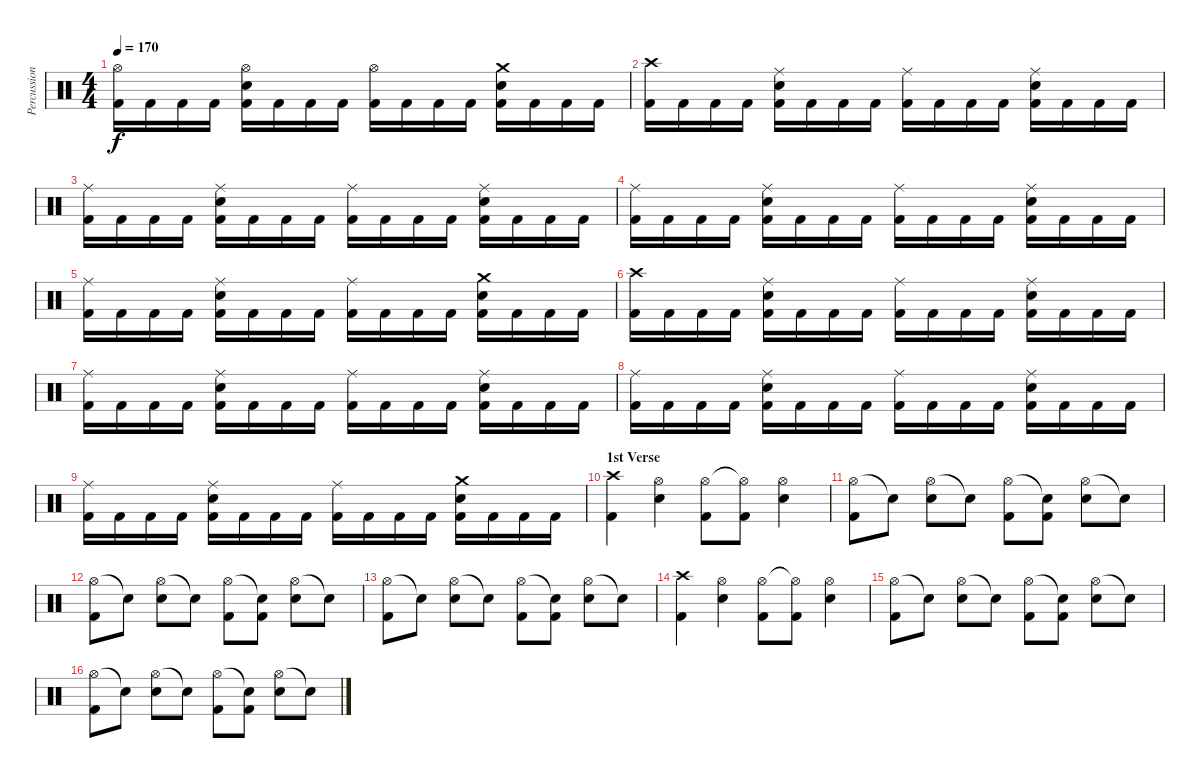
\track ("Percussion" "Percussion") {instrument percussion}
\staff {score}
\articulation defaults
\ts (4 4)
\tempo 170
\clef neutral
\ks c
("Hi-Hat (open)" "Kick (hit) 2").16{dy f} "Kick (hit) 2".16 "Kick (hit) 2".16 "Kick (hit) 2".16 ("Hi-Hat (open)" "Electric Snare (hit)" "Kick (hit) 2").16 "Kick (hit) 2".16 "Kick (hit) 2".16 "Kick (hit) 2".16 ("Hi-Hat (open)" "Kick (hit) 2").16 "Kick (hit) 2".16 "Kick (hit) 2".16 "Kick (hit) 2".16 ("Crash medium (hit)" "Electric Snare (hit)" "Kick (hit) 2").16 "Kick (hit) 2".16 "Kick (hit) 2".16 "Kick (hit) 2".16 |
("Crash high (hit)" "Kick (hit) 2").16 "Kick (hit) 2".16 "Kick (hit) 2".16 "Kick (hit) 2".16 ("Ride (middle)" "Electric Snare (hit)" "Kick (hit) 2").16 "Kick (hit) 2".16 "Kick (hit) 2".16 "Kick (hit) 2".16 ("Ride (middle)" "Kick (hit) 2").16 "Kick (hit) 2".16 "Kick (hit) 2".16 "Kick (hit) 2".16 ("Ride (middle)" "Electric Snare (hit)" "Kick (hit) 2").16 "Kick (hit) 2".16 "Kick (hit) 2".16 "Kick (hit) 2".16 |
("Ride (middle)" "Kick (hit) 2").16 "Kick (hit) 2".16 "Kick (hit) 2".16 "Kick (hit) 2".16 ("Ride (middle)" "Electric Snare (hit)" "Kick (hit) 2").16 "Kick (hit) 2".16 "Kick (hit) 2".16 "Kick (hit) 2".16 ("Ride (middle)" "Kick (hit) 2").16 "Kick (hit) 2".16 "Kick (hit) 2".16 "Kick (hit) 2".16 ("Ride (middle)" "Electric Snare (hit)" "Kick (hit) 2").16 "Kick (hit) 2".16 "Kick (hit) 2".16 "Kick (hit) 2".16 |
("Ride (middle)" "Kick (hit) 2").16 "Kick (hit) 2".16 "Kick (hit) 2".16 "Kick (hit) 2".16 ("Ride (middle)" "Electric Snare (hit)" "Kick (hit) 2").16 "Kick (hit) 2".16 "Kick (hit) 2".16 "Kick (hit) 2".16 ("Ride (middle)" "Kick (hit) 2").16 "Kick (hit) 2".16 "Kick (hit) 2".16 "Kick (hit) 2".16 ("Ride (middle)" "Electric Snare (hit)" "Kick (hit) 2").16 "Kick (hit) 2".16 "Kick (hit) 2".16 "Kick (hit) 2".16 |
("Ride (middle)" "Kick (hit) 2").16 "Kick (hit) 2".16 "Kick (hit) 2".16 "Kick (hit) 2".16 ("Ride (middle)" "Electric Snare (hit)" "Kick (hit) 2").16 "Kick (hit) 2".16 "Kick (hit) 2".16 "Kick (hit) 2".16 ("Ride (middle)" "Kick (hit) 2").16 "Kick (hit) 2".16 "Kick (hit) 2".16 "Kick (hit) 2".16 ("Crash medium (hit)" "Electric Snare (hit)" "Kick (hit) 2").16 "Kick (hit) 2".16 "Kick (hit) 2".16 "Kick (hit) 2".16 |
("Crash high (hit)" "Kick (hit) 2").16 "Kick (hit) 2".16 "Kick (hit) 2".16 "Kick (hit) 2".16 ("Ride (middle)" "Electric Snare (hit)" "Kick (hit) 2").16 "Kick (hit) 2".16 "Kick (hit) 2".16 "Kick (hit) 2".16 ("Ride (middle)" "Kick (hit) 2").16 "Kick (hit) 2".16 "Kick (hit) 2".16 "Kick (hit) 2".16 ("Ride (middle)" "Electric Snare (hit)" "Kick (hit) 2").16 "Kick (hit) 2".16 "Kick (hit) 2".16 "Kick (hit) 2".16 |
("Ride (middle)" "Kick (hit) 2").16 "Kick (hit) 2".16 "Kick (hit) 2".16 "Kick (hit) 2".16 ("Ride (middle)" "Electric Snare (hit)" "Kick (hit) 2").16 "Kick (hit) 2".16 "Kick (hit) 2".16 "Kick (hit) 2".16 ("Ride (middle)" "Kick (hit) 2").16 "Kick (hit) 2".16 "Kick (hit) 2".16 "Kick (hit) 2".16 ("Ride (middle)" "Electric Snare (hit)" "Kick (hit) 2").16 "Kick (hit) 2".16 "Kick (hit) 2".16 "Kick (hit) 2".16 |
("Ride (middle)" "Kick (hit) 2").16 "Kick (hit) 2".16 "Kick (hit) 2".16 "Kick (hit) 2".16 ("Ride (middle)" "Electric Snare (hit)" "Kick (hit) 2").16 "Kick (hit) 2".16 "Kick (hit) 2".16 "Kick (hit) 2".16 ("Ride (middle)" "Kick (hit) 2").16 "Kick (hit) 2".16 "Kick (hit) 2".16 "Kick (hit) 2".16 ("Ride (middle)" "Electric Snare (hit)" "Kick (hit) 2").16 "Kick (hit) 2".16 "Kick (hit) 2".16 "Kick (hit) 2".16 |
("Ride (middle)" "Kick (hit) 2").16 "Kick (hit) 2".16 "Kick (hit) 2".16 "Kick (hit) 2".16 ("Ride (middle)" "Electric Snare (hit)" "Kick (hit) 2").16 "Kick (hit) 2".16 "Kick (hit) 2".16 "Kick (hit) 2".16 ("Ride (middle)" "Kick (hit) 2").16 "Kick (hit) 2".16 "Kick (hit) 2".16 "Kick (hit) 2".16 ("Crash medium (hit)" "Electric Snare (hit)" "Kick (hit) 2").16 "Kick (hit) 2".16 "Kick (hit) 2".16 "Kick (hit) 2".16 |
\section ("" "1st Verse")
("Crash high (hit)" "Kick (hit) 2").4 ("Hi-Hat (open)" "Electric Snare (hit)").4 ("Hi-Hat (open)" "Kick (hit) 2").8 ("Hi-Hat (open)"{t} "Kick (hit) 2").8 ("Hi-Hat (open)" "Electric Snare (hit)").4 |
("Hi-Hat (open)" "Kick (hit) 2").8 "Snare (hit)"{t}.8 ("Hi-Hat (open)" "Electric Snare (hit)").8 "Snare (hit)"{t}.8 ("Hi-Hat (open)" "Kick (hit) 2").8 ("Snare (hit)"{t} "Kick (hit) 2").8 ("Hi-Hat (open)" "Electric Snare (hit)").8 "Snare (hit)"{t}.8 |
("Hi-Hat (open)" "Kick (hit) 2").8 "Snare (hit)"{t}.8 ("Hi-Hat (open)" "Electric Snare (hit)").8 "Snare (hit)"{t}.8 ("Hi-Hat (open)" "Kick (hit) 2").8 ("Snare (hit)"{t} "Kick (hit) 2").8 ("Hi-Hat (open)" "Electric Snare (hit)").8 "Snare (hit)"{t}.8 |
("Hi-Hat (open)" "Kick (hit) 2").8 "Snare (hit)"{t}.8 ("Hi-Hat (open)" "Electric Snare (hit)").8 "Snare (hit)"{t}.8 ("Hi-Hat (open)" "Kick (hit) 2").8 ("Snare (hit)"{t} "Kick (hit) 2").8 ("Hi-Hat (open)" "Electric Snare (hit)").8 "Snare (hit)"{t}.8 |
("Crash high (hit)" "Kick (hit) 2").4 ("Hi-Hat (open)" "Electric Snare (hit)").4 ("Hi-Hat (open)" "Kick (hit) 2").8 ("Hi-Hat (open)"{t} "Kick (hit) 2").8 ("Hi-Hat (open)" "Electric Snare (hit)").4 |
("Hi-Hat (open)" "Kick (hit) 2").8 "Snare (hit)"{t}.8 ("Hi-Hat (open)" "Electric Snare (hit)").8 "Snare (hit)"{t}.8 ("Hi-Hat (open)" "Kick (hit) 2").8 ("Snare (hit)"{t} "Kick (hit) 2").8 ("Hi-Hat (open)" "Electric Snare (hit)").8 "Snare (hit)"{t}.8 |
("Hi-Hat (open)" "Kick (hit) 2").8 "Snare (hit)"{t}.8 ("Hi-Hat (open)" "Electric Snare (hit)").8 "Snare (hit)"{t}.8 ("Hi-Hat (open)" "Kick (hit) 2").8 ("Snare (hit)"{t} "Kick (hit) 2").8 ("Hi-Hat (open)" "Electric Snare (hit)").8 "Snare (hit)"{t}.8
